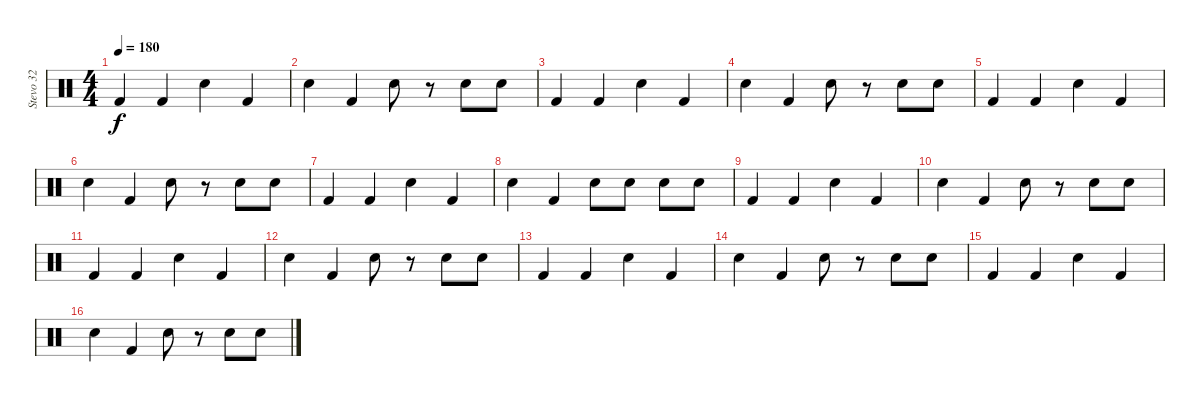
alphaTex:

\track ("Stevo 32" "Stevo 32") {instrument percussion}
\staff {score}
\articulation defaults
\ts (4 4)
\tempo 180
\clef neutral
\ks c "Kick (hit) 2".4{dy f} "Kick (hit) 2".4 "Snare (hit) 2".4 "Kick (hit) 2".4
|
"Snare (hit) 2".4 "Kick (hit) 2".4 "Snare (hit) 2".8 r.8 "Snare (hit) 2".8 "Snare (hit) 2".8 |
"Kick (hit) 2".4 "Kick (hit) 2".4 "Snare (hit) 2".4 "Kick (hit) 2".4 |
"Snare (hit) 2".4 "Kick (hit) 2".4 "Snare (hit) 2".8 r.8 "Snare (hit) 2".8 "Snare (hit) 2".8 |
"Kick (hit) 2".4 "Kick (hit) 2".4 "Snare (hit) 2".4 "Kick (hit) 2".4 |
"Snare (hit) 2".4 "Kick (hit) 2".4 "Snare (hit) 2".8 r.8 "Snare (hit) 2".8 "Snare (hit) 2".8 |
"Kick (hit) 2".4 "Kick (hit) 2".4 "Snare (hit) 2".4 "Kick (hit) 2".4 |
"Snare (hit) 2".4 "Kick (hit) 2".4 "Snare (hit) 2".8 "Snare (hit) 2".8 "Snare (hit) 2".8 "Snare (hit) 2".8 |
"Kick (hit) 2".4 "Kick (hit) 2".4 "Snare (hit) 2".4 "Kick (hit) 2".4 |
"Snare (hit) 2".4 "Kick (hit) 2".4 "Snare (hit) 2".8 r.8 "Snare (hit) 2".8 "Snare (hit) 2".8 |
"Kick (hit) 2".4 "Kick (hit) 2".4 "Snare (hit) 2".4 "Kick (hit) 2".4 |
"Snare (hit) 2".4 "Kick (hit) 2".4 "Snare (hit) 2".8 r.8 "Snare (hit) 2".8 "Snare (hit) 2".8 |
"Kick (hit) 2".4 "Kick (hit) 2".4 "Snare (hit) 2".4 "Kick (hit) 2".4 |
"Snare (hit) 2".4 "Kick (hit) 2".4 "Snare (hit) 2".8 r.8 "Snare (hit) 2".8 "Snare (hit) 2".8 |
"Kick (hit) 2".4 "Kick (hit) 2".4 "Snare (hit) 2".4 "Kick (hit) 2".4 |
"Snare (hit) 2".4 "Kick (hit) 2".4 "Snare (hit) 2".8 r.8 "Snare (hit) 2".8 "Snare (hit) 2".8
